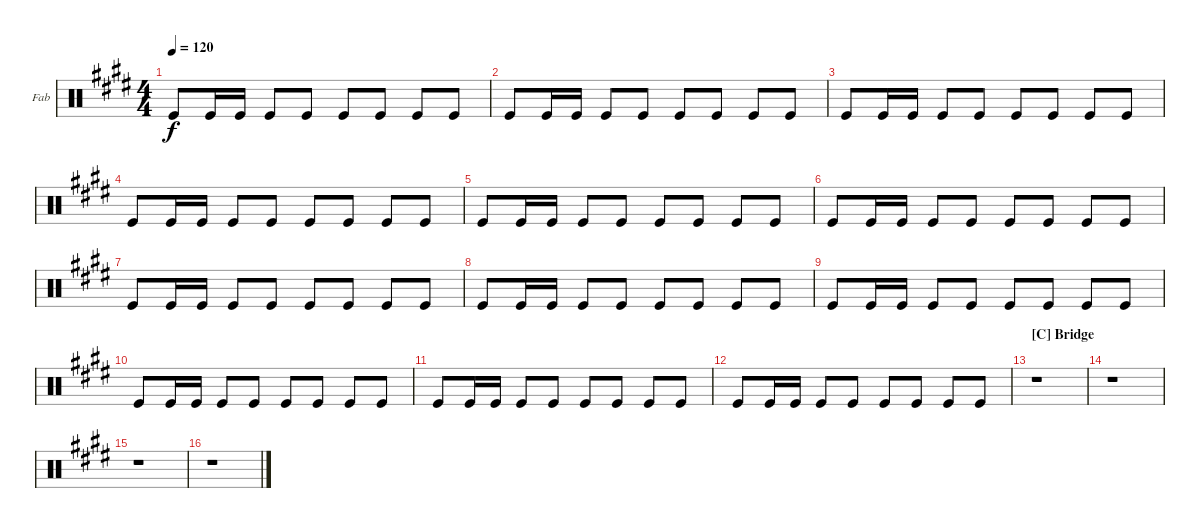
\bracketExtendMode groupsimilarinstruments
\firstSystemTrackNameOrientation horizontal
\otherSystemsTrackNameOrientation horizontal
\track ("Pipe" "Fab") {instrument percussion}
\staff {score}
\articulation defaults
\ts (4 4)
\tempo 120
\clef neutral
\scale
0.333333
\ks e "Kick (hit)".8{dy f} "Kick (hit)".16 "Kick (hit)".16 "Kick (hit)".8 "Kick (hit)".8 "Kick (hit)".8 "Kick (hit)".8 "Kick (hit)".8 "Kick (hit)".8
|
\scale
0.333333 "Kick (hit)".8 "Kick (hit)".16 "Kick (hit)".16 "Kick (hit)".8 "Kick (hit)".8 "Kick (hit)".8 "Kick (hit)".8 "Kick (hit)".8 "Kick (hit)".8 |
\scale
0.333333 "Kick (hit)".8 "Kick (hit)".16 "Kick (hit)".16 "Kick (hit)".8 "Kick (hit)".8 "Kick (hit)".8 "Kick (hit)".8 "Kick (hit)".8 "Kick (hit)".8 |
\scale
0.333333 "Kick (hit)".8 "Kick (hit)".16 "Kick (hit)".16 "Kick (hit)".8 "Kick (hit)".8 "Kick (hit)".8 "Kick (hit)".8 "Kick (hit)".8 "Kick (hit)".8 |
\scale
0.333333 "Kick (hit)".8 "Kick (hit)".16 "Kick (hit)".16 "Kick (hit)".8 "Kick (hit)".8 "Kick (hit)".8 "Kick (hit)".8 "Kick (hit)".8 "Kick (hit)".8 |
\scale
0.333333 "Kick (hit)".8 "Kick (hit)".16 "Kick (hit)".16 "Kick (hit)".8 "Kick (hit)".8 "Kick (hit)".8 "Kick (hit)".8 "Kick (hit)".8 "Kick (hit)".8 |
\scale
0.333333 "Kick (hit)".8 "Kick (hit)".16 "Kick (hit)".16 "Kick (hit)".8 "Kick (hit)".8 "Kick (hit)".8 "Kick (hit)".8 "Kick (hit)".8 "Kick (hit)".8 |
\scale
0.333333 "Kick (hit)".8 "Kick (hit)".16 "Kick (hit)".16 "Kick (hit)".8 "Kick (hit)".8 "Kick (hit)".8 "Kick (hit)".8 "Kick (hit)".8 "Kick (hit)".8 |
\scale
0.333333 "Kick (hit)".8 "Kick (hit)".16 "Kick (hit)".16 "Kick (hit)".8 "Kick (hit)".8 "Kick (hit)".8 "Kick (hit)".8 "Kick (hit)".8 "Kick (hit)".8 |
\scale
0.333333 "Kick (hit)".8 "Kick (hit)".16 "Kick (hit)".16 "Kick (hit)".8 "Kick (hit)".8 "Kick (hit)".8 "Kick (hit)".8 "Kick (hit)".8 "Kick (hit)".8 |
\scale
0.333333 "Kick (hit)".8 "Kick (hit)".16 "Kick (hit)".16 "Kick (hit)".8 "Kick (hit)".8 "Kick (hit)".8 "Kick (hit)".8 "Kick (hit)".8 "Kick (hit)".8 |
\scale
0.333333 "Kick (hit)".8 "Kick (hit)".16 "Kick (hit)".16 "Kick (hit)".8 "Kick (hit)".8 "Kick (hit)".8 "Kick (hit)".8 "Kick (hit)".8 "Kick (hit)".8 |
\section ("C" "Bridge")
\scale
0.333333 r.1 |
\scale
0.333333 r.1 |
\scale
0.333333 r.1 |
\scale
0.333333 r.1
